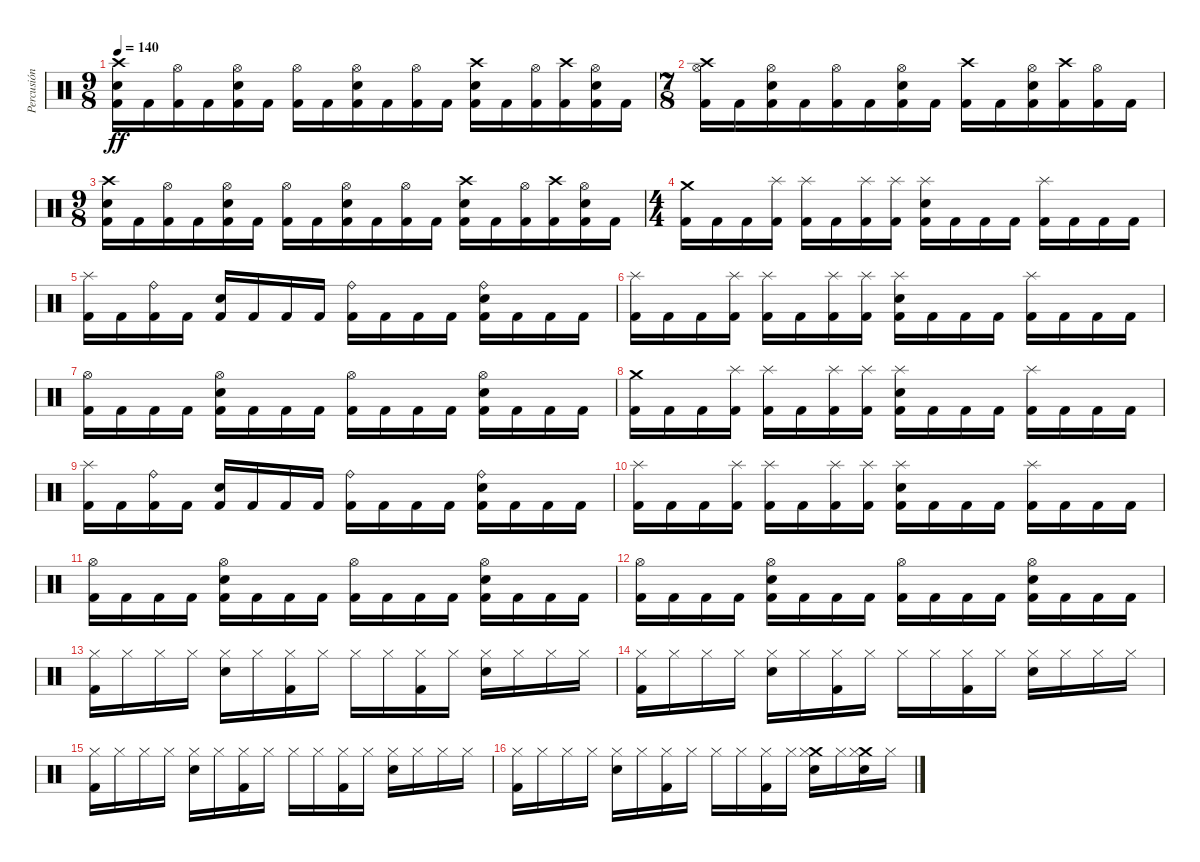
\track ("Percusión" "Percusión") {instrument percussion}
\staff {score}
\articulation defaults
\ts (9 8)
\tempo 140
\clef neutral
\ks c
("Crash high (hit)" "Electric Snare (hit)" "Kick (hit) 2").16{dy ff} "Kick (hit) 2".16 ("Hi-Hat (open)" "Kick (hit) 2").16 "Kick (hit) 2".16 ("Hi-Hat (open)" "Electric Snare (hit)" "Kick (hit) 2").16 "Kick (hit) 2".16 ("Hi-Hat (open)" "Kick (hit) 2").16 "Kick (hit) 2".16 ("Hi-Hat (open)" "Electric Snare (hit)" "Kick (hit) 2").16 "Kick (hit) 2".16 ("Hi-Hat (open)" "Kick (hit) 2").16 "Kick (hit) 2".16 ("Crash high (hit)" "Electric Snare (hit)" "Kick (hit) 2").16 "Kick (hit) 2".16 ("Hi-Hat (open)" "Kick (hit) 2").16 ("Crash high (hit)" "Kick (hit) 2").16 ("Hi-Hat (open)" "Electric Snare (hit)" "Kick (hit) 2").16 "Kick (hit) 2".16 |
\ts (7 8)
("Crash high (hit)" "Hi-Hat (open)" "Kick (hit) 2").16 "Kick (hit) 2".16 ("Hi-Hat (open)" "Electric Snare (hit)" "Kick (hit) 2").16 "Kick (hit) 2".16 ("Hi-Hat (open)" "Kick (hit) 2").16 "Kick (hit) 2".16 ("Hi-Hat (open)" "Electric Snare (hit)" "Kick (hit) 2").16 "Kick (hit) 2".16 ("Crash high (hit)" "Kick (hit) 2").16 "Kick (hit) 2".16 ("Hi-Hat (open)" "Electric Snare (hit)" "Kick (hit) 2").16 ("Crash high (hit)" "Kick (hit) 2").16 ("Hi-Hat (open)" "Kick (hit) 2").16 "Kick (hit) 2".16 |
\ts (9 8)
("Crash high (hit)" "Electric Snare (hit)" "Kick (hit) 2").16 "Kick (hit) 2".16 ("Hi-Hat (open)" "Kick (hit) 2").16 "Kick (hit) 2".16 ("Hi-Hat (open)" "Electric Snare (hit)" "Kick (hit) 2").16 "Kick (hit) 2".16 ("Hi-Hat (open)" "Kick (hit) 2").16 "Kick (hit) 2".16 ("Hi-Hat (open)" "Electric Snare (hit)" "Kick (hit) 2").16 "Kick (hit) 2".16 ("Hi-Hat (open)" "Kick (hit) 2").16 "Kick (hit) 2".16 ("Crash high (hit)" "Electric Snare (hit)" "Kick (hit) 2").16 "Kick (hit) 2".16 ("Hi-Hat (open)" "Kick (hit) 2").16 ("Crash high (hit)" "Kick (hit) 2").16 ("Hi-Hat (open)" "Electric Snare (hit)" "Kick (hit) 2").16 "Kick (hit) 2".16 |
\ts (4 4)
("Crash medium (hit)" "Kick (hit) 2").16 "Kick (hit) 2".16 "Kick (hit) 2".16 ("Splash (hit)" "Kick (hit) 2").16 ("Splash (hit)" "Kick (hit) 2").16 "Kick (hit) 2".16 ("Splash (hit)" "Kick (hit) 2").16 ("Splash (hit)" "Kick (hit) 2").16 ("Splash (hit)" "Electric Snare (hit)" "Kick (hit) 2").16 "Kick (hit) 2".16 "Kick (hit) 2".16 "Kick (hit) 2".16 ("Splash (hit)" "Kick (hit) 2").16 "Kick (hit) 2".16 "Kick (hit) 2".16 "Kick (hit) 2".16 |
("Splash (hit)" "Kick (hit) 2").16 "Kick (hit) 2".16 ("Ride (bell)" "Kick (hit) 2").16 "Kick (hit) 2".16 ("Electric Snare (hit)" "Kick (hit) 2").16 "Kick (hit) 2".16 "Kick (hit) 2".16 "Kick (hit) 2".16 ("Ride (bell)" "Kick (hit) 2").16 "Kick (hit) 2".16 "Kick (hit) 2".16 "Kick (hit) 2".16 ("Ride (bell)" "Electric Snare (hit)" "Kick (hit) 2").16 "Kick (hit) 2".16 "Kick (hit) 2".16 "Kick (hit) 2".16 |
("Splash (hit)" "Kick (hit) 2").16 "Kick (hit) 2".16 "Kick (hit) 2".16 ("Splash (hit)" "Kick (hit) 2").16 ("Splash (hit)" "Kick (hit) 2").16 "Kick (hit) 2".16 ("Splash (hit)" "Kick (hit) 2").16 ("Splash (hit)" "Kick (hit) 2").16 ("Splash (hit)" "Electric Snare (hit)" "Kick (hit) 2").16 "Kick (hit) 2".16 "Kick (hit) 2".16 "Kick (hit) 2".16 ("Splash (hit)" "Kick (hit) 2").16 "Kick (hit) 2".16 "Kick (hit) 2".16 "Kick (hit) 2".16 |
("Hi-Hat (open)" "Kick (hit) 2").16 "Kick (hit) 2".16 "Kick (hit) 2".16 "Kick (hit) 2".16 ("Hi-Hat (open)" "Electric Snare (hit)" "Kick (hit) 2").16 "Kick (hit) 2".16 "Kick (hit) 2".16 "Kick (hit) 2".16 ("Hi-Hat (open)" "Kick (hit) 2").16 "Kick (hit) 2".16 "Kick (hit) 2".16 "Kick (hit) 2".16 ("Hi-Hat (open)" "Electric Snare (hit)" "Kick (hit) 2").16 "Kick (hit) 2".16 "Kick (hit) 2".16 "Kick (hit) 2".16 |
("Crash medium (hit)" "Kick (hit) 2").16 "Kick (hit) 2".16 "Kick (hit) 2".16 ("Splash (hit)" "Kick (hit) 2").16 ("Splash (hit)" "Kick (hit) 2").16 "Kick (hit) 2".16 ("Splash (hit)" "Kick (hit) 2").16 ("Splash (hit)" "Kick (hit) 2").16 ("Splash (hit)" "Electric Snare (hit)" "Kick (hit) 2").16 "Kick (hit) 2".16 "Kick (hit) 2".16 "Kick (hit) 2".16 ("Splash (hit)" "Kick (hit) 2").16 "Kick (hit) 2".16 "Kick (hit) 2".16 "Kick (hit) 2".16 |
("Splash (hit)" "Kick (hit) 2").16 "Kick (hit) 2".16 ("Ride (bell)" "Kick (hit) 2").16 "Kick (hit) 2".16 ("Electric Snare (hit)" "Kick (hit) 2").16 "Kick (hit) 2".16 "Kick (hit) 2".16 "Kick (hit) 2".16 ("Ride (bell)" "Kick (hit) 2").16 "Kick (hit) 2".16 "Kick (hit) 2".16 "Kick (hit) 2".16 ("Ride (bell)" "Electric Snare (hit)" "Kick (hit) 2").16 "Kick (hit) 2".16 "Kick (hit) 2".16 "Kick (hit) 2".16 |
("Splash (hit)" "Kick (hit) 2").16 "Kick (hit) 2".16 "Kick (hit) 2".16 ("Splash (hit)" "Kick (hit) 2").16 ("Splash (hit)" "Kick (hit) 2").16 "Kick (hit) 2".16 ("Splash (hit)" "Kick (hit) 2").16 ("Splash (hit)" "Kick (hit) 2").16 ("Splash (hit)" "Electric Snare (hit)" "Kick (hit) 2").16 "Kick (hit) 2".16 "Kick (hit) 2".16 "Kick (hit) 2".16 ("Splash (hit)" "Kick (hit) 2").16 "Kick (hit) 2".16 "Kick (hit) 2".16 "Kick (hit) 2".16 |
("Hi-Hat (open)" "Kick (hit) 2").16 "Kick (hit) 2".16 "Kick (hit) 2".16 "Kick (hit) 2".16 ("Hi-Hat (open)" "Electric Snare (hit)" "Kick (hit) 2").16 "Kick (hit) 2".16 "Kick (hit) 2".16 "Kick (hit) 2".16 ("Hi-Hat (open)" "Kick (hit) 2").16 "Kick (hit) 2".16 "Kick (hit) 2".16 "Kick (hit) 2".16 ("Hi-Hat (open)" "Electric Snare (hit)" "Kick (hit) 2").16 "Kick (hit) 2".16 "Kick (hit) 2".16 "Kick (hit) 2".16 |
("Hi-Hat (open)" "Kick (hit) 2").16 "Kick (hit) 2".16 "Kick (hit) 2".16 "Kick (hit) 2".16 ("Hi-Hat (open)" "Electric Snare (hit)" "Kick (hit) 2").16 "Kick (hit) 2".16 "Kick (hit) 2".16 "Kick (hit) 2".16 ("Hi-Hat (open)" "Kick (hit) 2").16 "Kick (hit) 2".16 "Kick (hit) 2".16 "Kick (hit) 2".16 ("Hi-Hat (open)" "Electric Snare (hit)" "Kick (hit) 2").16 "Kick (hit) 2".16 "Kick (hit) 2".16 "Kick (hit) 2".16 |
("Hi-Hat (closed)" "Kick (hit) 2").16 "Hi-Hat (closed)".16 "Hi-Hat (closed)".16 "Hi-Hat (closed)".16 ("Hi-Hat (closed)" "Electric Snare (hit)").16 "Hi-Hat (closed)".16 ("Hi-Hat (closed)" "Kick (hit) 2").16 "Hi-Hat (closed)".16 "Hi-Hat (closed)".16 "Hi-Hat (closed)".16 ("Hi-Hat (closed)" "Kick (hit) 2").16 "Hi-Hat (closed)".16 ("Hi-Hat (closed)" "Electric Snare (hit)").16 "Hi-Hat (closed)".16 "Hi-Hat (closed)".16 "Hi-Hat (closed)".16 |
("Hi-Hat (closed)" "Kick (hit) 2").16 "Hi-Hat (closed)".16 "Hi-Hat (closed)".16 "Hi-Hat (closed)".16 ("Hi-Hat (closed)" "Electric Snare (hit)").16 "Hi-Hat (closed)".16 ("Hi-Hat (closed)" "Kick (hit) 2").16 "Hi-Hat (closed)".16 "Hi-Hat (closed)".16 "Hi-Hat (closed)".16 ("Hi-Hat (closed)" "Kick (hit) 2").16 "Hi-Hat (closed)".16 ("Hi-Hat (closed)" "Electric Snare (hit)").16 "Hi-Hat (closed)".16 "Hi-Hat (closed)".16 "Hi-Hat (closed)".16 |
("Hi-Hat (closed)" "Kick (hit) 2").16 "Hi-Hat (closed)".16 "Hi-Hat (closed)".16 "Hi-Hat (closed)".16 ("Hi-Hat (closed)" "Electric Snare (hit)").16 "Hi-Hat (closed)".16 ("Hi-Hat (closed)" "Kick (hit) 2").16 "Hi-Hat (closed)".16 "Hi-Hat (closed)".16 "Hi-Hat (closed)".16 ("Hi-Hat (closed)" "Kick (hit) 2").16 "Hi-Hat (closed)".16 ("Hi-Hat (closed)" "Electric Snare (hit)").16 "Hi-Hat (closed)".16 "Hi-Hat (closed)".16 "Hi-Hat (closed)".16 |
("Hi-Hat (closed)" "Kick (hit) 2").16 "Hi-Hat (closed)".16 "Hi-Hat (closed)".16 "Hi-Hat (closed)".16 ("Hi-Hat (closed)" "Electric Snare (hit)").16 "Hi-Hat (closed)".16 ("Hi-Hat (closed)" "Kick (hit) 2").16 "Hi-Hat (closed)".16 "Hi-Hat (closed)".16 "Hi-Hat (closed)".16 ("Hi-Hat (closed)" "Kick (hit) 2").16 "Hi-Hat (closed)".16 ("Crash medium (hit)" "Hi-Hat (closed)" "Electric Snare (hit)").16 "Hi-Hat (closed)".16 ("Crash medium (hit)" "Hi-Hat (closed)" "Electric Snare (hit)").16 "Hi-Hat (closed)".16
